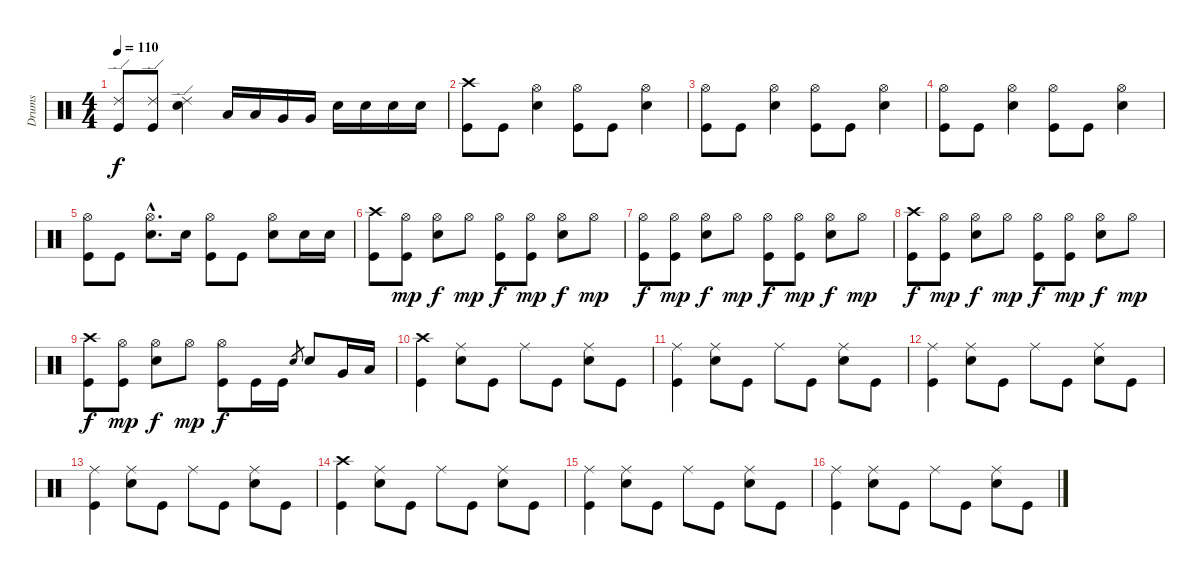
\track ("Drums" "Drums") {instrument percussion}
\staff {score}
\articulation defaults
\ts (4 4)
\tempo 110
\clef neutral
\ks c
("Ride (edge) 2" "Kick (hit)").8{dy f} ("Ride (edge) 2" "Kick (hit)").8 ("Ride (edge) 2" "Electric Snare (hit)").4 "Low Tom (hit)".16 "Low Tom (hit)".16 "Very Low Tom (hit)".16 "Very Low Tom (hit)".16 "Electric Snare (hit)".16 "Electric Snare (hit)".16 "Electric Snare (hit)".16 "Electric Snare (hit)".16 |
("Crash high (hit)" "Kick (hit)").8 "Kick (hit)".8 ("Hi-Hat (open)" "Electric Snare (hit)").4 ("Hi-Hat (open)" "Kick (hit)").8 "Kick (hit)".8 ("Hi-Hat (open)" "Electric Snare (hit)").4 |
("Hi-Hat (open)" "Kick (hit)").8 "Kick (hit)".8 ("Hi-Hat (open)" "Electric Snare (hit)").4 ("Hi-Hat (open)" "Kick (hit)").8 "Kick (hit)".8 ("Hi-Hat (open)" "Electric Snare (hit)").4 |
("Hi-Hat (open)" "Kick (hit)").8 "Kick (hit)".8 ("Hi-Hat (open)" "Electric Snare (hit)").4 ("Hi-Hat (open)" "Kick (hit)").8 "Kick (hit)".8 ("Hi-Hat (open)" "Electric Snare (hit)").4 |
("Hi-Hat (open)" "Kick (hit)").8 "Kick (hit)".8 ("Hi-Hat (open)"{hac} "Electric Snare (hit)"{hac}).8{d} "Electric Snare (hit)".16 ("Hi-Hat (open)" "Kick (hit)").8 "Kick (hit)".8 ("Hi-Hat (open)" "Electric Snare (hit)").8 "Electric Snare (hit)".16 "Electric Snare (hit)".16 |
("Crash high (hit)" "Kick (hit)").8 ("Hi-Hat (open)" "Kick (hit)").8{dy mp} ("Hi-Hat (open)" "Electric Snare (hit)").8{dy f} "Hi-Hat (open)".8{dy mp} ("Hi-Hat (open)" "Kick (hit)").8{dy f} ("Hi-Hat (open)" "Kick (hit)").8{dy mp} ("Hi-Hat (open)" "Electric Snare (hit)").8{dy f} "Hi-Hat (open)".8{dy mp} |
("Hi-Hat (open)" "Kick (hit)").8{dy f} ("Hi-Hat (open)" "Kick (hit)").8{dy mp} ("Hi-Hat (open)" "Electric Snare (hit)").8{dy f} "Hi-Hat (open)".8{dy mp} ("Hi-Hat (open)" "Kick (hit)").8{dy f} ("Hi-Hat (open)" "Kick (hit)").8{dy mp} ("Hi-Hat (open)" "Electric Snare (hit)").8{dy f} "Hi-Hat (open)".8{dy mp} |
("Crash high (hit)" "Kick (hit)").8{dy f} ("Hi-Hat (open)" "Kick (hit)").8{dy mp} ("Hi-Hat (open)" "Electric Snare (hit)").8{dy f} "Hi-Hat (open)".8{dy mp} ("Hi-Hat (open)" "Kick (hit)").8{dy f} ("Hi-Hat (open)" "Kick (hit)").8{dy mp} ("Hi-Hat (open)" "Electric Snare (hit)").8{dy f} "Hi-Hat (open)".8{dy mp} |
("Crash high (hit)" "Kick (hit)").8{dy f} ("Hi-Hat (open)" "Kick (hit)").8{dy mp} ("Hi-Hat (open)" "Electric Snare (hit)").8{dy f} "Hi-Hat (open)".8{dy mp} ("Hi-Hat (open)" "Kick (hit)").8{dy f} "Kick (hit)".16 "Kick (hit)".16 "Electric Snare (hit)".8{gr} "Electric Snare (hit)".8 "Very Low Tom (hit)".16 "Low Floor Tom (hit)".16 |
\section ("" "")
("Crash high (hit)" "Kick (hit)").4 ("Ride (middle)" "Electric Snare (hit)").8 "Kick (hit)".8 "Ride (middle)".8 "Kick (hit)".8 ("Ride (middle)" "Electric Snare (hit)").8 "Kick (hit)".8 |
("Ride (middle)" "Kick (hit)").4 ("Ride (middle)" "Electric Snare (hit)").8 "Kick (hit)".8 "Ride (middle)".8 "Kick (hit)".8 ("Ride (middle)" "Electric Snare (hit)").8 "Kick (hit)".8 |
("Ride (middle)" "Kick (hit)").4 ("Ride (middle)" "Electric Snare (hit)").8 "Kick (hit)".8 "Ride (middle)".8 "Kick (hit)".8 ("Ride (middle)" "Electric Snare (hit)").8 "Kick (hit)".8 |
("Ride (middle)" "Kick (hit)").4 ("Ride (middle)" "Electric Snare (hit)").8 "Kick (hit)".8 "Ride (middle)".8 "Kick (hit)".8 ("Ride (middle)" "Electric Snare (hit)").8 "Kick (hit)".8 |
("Crash high (hit)" "Kick (hit)").4 ("Ride (middle)" "Electric Snare (hit)").8 "Kick (hit)".8 "Ride (middle)".8 "Kick (hit)".8 ("Ride (middle)" "Electric Snare (hit)").8 "Kick (hit)".8 |
("Ride (middle)" "Kick (hit)").4 ("Ride (middle)" "Electric Snare (hit)").8 "Kick (hit)".8 "Ride (middle)".8 "Kick (hit)".8 ("Ride (middle)" "Electric Snare (hit)").8 "Kick (hit)".8 |
("Ride (middle)" "Kick (hit)").4 ("Ride (middle)" "Electric Snare (hit)").8 "Kick (hit)".8 "Ride (middle)".8 "Kick (hit)".8 ("Ride (middle)" "Electric Snare (hit)").8 "Kick (hit)".8
